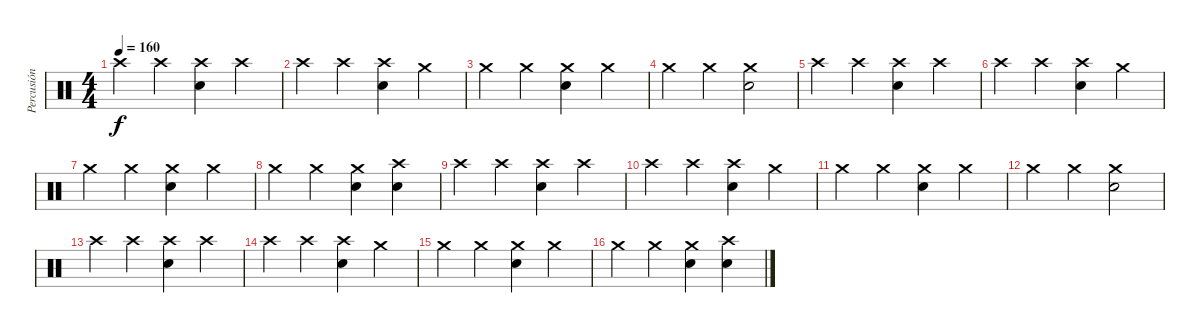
\track ("Percusión" "Percusión") {instrument percussion}
\staff {score}
\articulation defaults
\ts (4 4)
\tempo 160
\clef neutral
\ks c "Crash high (hit)".4{dy f} "Crash high (hit)".4
("Crash high (hit)" "Electric Snare (hit)").4 "Crash high (hit)".4 |
"Crash high (hit)".4 "Crash high (hit)".4 ("Electric Snare (hit)" "Crash high (hit)").4 "Crash medium (hit)".4 |
"Crash medium (hit)".4 "Crash medium (hit)".4 ("Crash medium (hit)" "Electric Snare (hit)").4 "Crash medium (hit)".4 |
"Crash medium (hit)".4 "Crash medium (hit)".4 ("Crash medium (hit)" "Electric Snare (hit)").2 |
"Crash high (hit)".4 "Crash high (hit)".4 ("Crash high (hit)" "Electric Snare (hit)").4 "Crash high (hit)".4 |
"Crash high (hit)".4 "Crash high (hit)".4 ("Electric Snare (hit)" "Crash high (hit)").4 "Crash medium (hit)".4 |
"Crash medium (hit)".4 "Crash medium (hit)".4 ("Crash medium (hit)" "Electric Snare (hit)").4 "Crash medium (hit)".4 |
"Crash medium (hit)".4 "Crash medium (hit)".4 ("Crash medium (hit)" "Electric Snare (hit)").4 ("Crash high (hit)" "Electric Snare (hit)").4 |
"Crash high (hit)".4 "Crash high (hit)".4 ("Crash high (hit)" "Electric Snare (hit)").4 "Crash high (hit)".4 |
"Crash high (hit)".4 "Crash high (hit)".4 ("Electric Snare (hit)" "Crash high (hit)").4 "Crash medium (hit)".4 |
"Crash medium (hit)".4 "Crash medium (hit)".4 ("Crash medium (hit)" "Electric Snare (hit)").4 "Crash medium (hit)".4 |
"Crash medium (hit)".4 "Crash medium (hit)".4 ("Crash medium (hit)" "Electric Snare (hit)").2 |
"Crash high (hit)".4 "Crash high (hit)".4 ("Crash high (hit)" "Electric Snare (hit)").4 "Crash high (hit)".4 |
"Crash high (hit)".4 "Crash high (hit)".4 ("Electric Snare (hit)" "Crash high (hit)").4 "Crash medium (hit)".4 |
"Crash medium (hit)".4 "Crash medium (hit)".4 ("Crash medium (hit)" "Electric Snare (hit)").4 "Crash medium (hit)".4 |
"Crash medium (hit)".4 "Crash medium (hit)".4 ("Crash medium (hit)" "Electric Snare (hit)").4 ("Crash high (hit)" "Electric Snare (hit)").4
